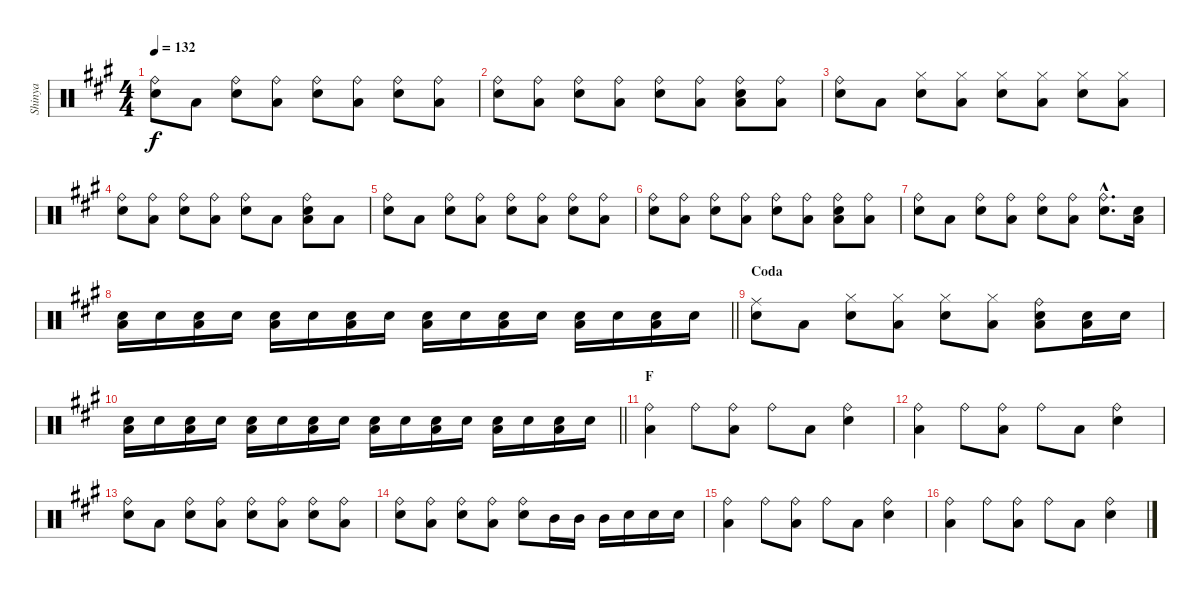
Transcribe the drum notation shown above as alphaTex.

\track ("Shinya" "Shinya") {instrument percussion}
\staff {score}
\articulation defaults
\ts (4 4)
\tempo 132
\clef neutral
\ks a
("Ride (bell)" "Snare (hit) 2").8{dy f} "Low Floor Tom (hit)".8 ("Ride (bell)" "Snare (hit) 2").8 ("Low Floor Tom (hit)" "Ride (bell)").8 ("Ride (bell)" "Snare (hit) 2").8 ("Low Floor Tom (hit)" "Ride (bell)").8 ("Ride (bell)" "Snare (hit) 2").8 ("Low Floor Tom (hit)" "Ride (bell)").8 |
("Ride (bell)" "Snare (hit) 2").8 ("Low Floor Tom (hit)" "Ride (bell)").8 ("Ride (bell)" "Snare (hit) 2").8 ("Low Floor Tom (hit)" "Ride (bell)").8 ("Ride (bell)" "Snare (hit) 2").8 ("Low Floor Tom (hit)" "Ride (bell)").8 ("Low Floor Tom (hit)" "Ride (bell)" "Snare (hit) 2").8 ("Low Floor Tom (hit)" "Ride (bell)").8 |
("Ride (bell)" "Snare (hit) 2").8 "Low Floor Tom (hit)".8 ("Hi-Hat (closed)" "Snare (hit) 2").8 ("Low Floor Tom (hit)" "Hi-Hat (closed)").8 ("Hi-Hat (closed)" "Snare (hit) 2").8 ("Low Floor Tom (hit)" "Hi-Hat (closed)").8 ("Hi-Hat (closed)" "Snare (hit) 2").8 ("Low Floor Tom (hit)" "Hi-Hat (closed)").8 |
("Ride (bell)" "Snare (hit) 2").8 ("Low Floor Tom (hit)" "Ride (bell)").8 ("Ride (bell)" "Snare (hit) 2").8 ("Low Floor Tom (hit)" "Ride (bell)").8 ("Ride (bell)" "Snare (hit) 2").8 "Low Floor Tom (hit)".8 ("Low Floor Tom (hit)" "Ride (bell)" "Snare (hit) 2").8 "Low Floor Tom (hit)".8 |
("Ride (bell)" "Snare (hit) 2").8 "Low Floor Tom (hit)".8 ("Ride (bell)" "Snare (hit) 2").8 ("Low Floor Tom (hit)" "Ride (bell)").8 ("Ride (bell)" "Snare (hit) 2").8 ("Low Floor Tom (hit)" "Ride (bell)").8 ("Ride (bell)" "Snare (hit) 2").8 ("Low Floor Tom (hit)" "Ride (bell)").8 |
("Ride (bell)" "Snare (hit) 2").8 ("Low Floor Tom (hit)" "Ride (bell)").8 ("Ride (bell)" "Snare (hit) 2").8 ("Low Floor Tom (hit)" "Ride (bell)").8 ("Ride (bell)" "Snare (hit) 2").8 ("Low Floor Tom (hit)" "Ride (bell)").8 ("Low Floor Tom (hit)" "Ride (bell)" "Snare (hit) 2").8 ("Low Floor Tom (hit)" "Ride (bell)").8 |
("Ride (bell)" "Snare (hit) 2").8 "Low Floor Tom (hit)".8 ("Ride (bell)" "Snare (hit) 2").8 ("Low Floor Tom (hit)" "Ride (bell)").8 ("Ride (bell)" "Snare (hit) 2").8 ("Low Floor Tom (hit)" "Ride (bell)").8 ("Ride (bell)"{hac} "Snare (hit) 2"{hac}).8{d} ("Low Floor Tom (hit)" "Snare (hit) 2").16 |
\barLineRight lightlight
("Low Floor Tom (hit)" "Snare (hit) 2").16 "Snare (hit) 2".16 ("Low Floor Tom (hit)" "Snare (hit) 2").16 "Snare (hit) 2".16 ("Low Floor Tom (hit)" "Snare (hit) 2").16 "Snare (hit) 2".16 ("Low Floor Tom (hit)" "Snare (hit) 2").16 "Snare (hit) 2".16 ("Low Floor Tom (hit)" "Snare (hit) 2").16 "Snare (hit) 2".16 ("Low Floor Tom (hit)" "Snare (hit) 2").16 "Snare (hit) 2".16 ("Low Floor Tom (hit)" "Snare (hit) 2").16 "Snare (hit) 2".16 ("Low Floor Tom (hit)" "Snare (hit) 2").16 "Snare (hit) 2".16 |
\section ("" "Coda")
("Ride (middle)" "Snare (hit) 2").8 "Low Floor Tom (hit)".8 ("Hi-Hat (closed)" "Snare (hit) 2").8 ("Low Floor Tom (hit)" "Hi-Hat (closed)").8 ("Hi-Hat (closed)" "Snare (hit) 2").8 ("Low Floor Tom (hit)" "Hi-Hat (closed)").8 ("Low Floor Tom (hit)" "Ride (bell)" "Snare (hit) 2").8 ("Low Floor Tom (hit)" "Snare (hit) 2").16 "Snare (hit) 2".16 |
\barLineRight lightlight
("Low Floor Tom (hit)" "Snare (hit) 2").16 "Snare (hit) 2".16 ("Low Floor Tom (hit)" "Snare (hit) 2").16 "Snare (hit) 2".16 ("Low Floor Tom (hit)" "Snare (hit) 2").16 "Snare (hit) 2".16 ("Low Floor Tom (hit)" "Snare (hit) 2").16 "Snare (hit) 2".16 ("Low Floor Tom (hit)" "Snare (hit) 2").16 "Snare (hit) 2".16 ("Low Floor Tom (hit)" "Snare (hit) 2").16 "Snare (hit) 2".16 ("Low Floor Tom (hit)" "Snare (hit) 2").16 "Snare (hit) 2".16 ("Low Floor Tom (hit)" "Snare (hit) 2").16 "Snare (hit) 2".16 |
\section ("" "F")
("Low Floor Tom (hit)" "Ride (bell)").4 "Ride (bell)".8 ("Low Floor Tom (hit)" "Ride (bell)").8 "Ride (bell)".8 "Low Floor Tom (hit)".8 ("Ride (bell)" "Snare (hit) 2").4 |
("Low Floor Tom (hit)" "Ride (bell)").4 "Ride (bell)".8 ("Low Floor Tom (hit)" "Ride (bell)").8 "Ride (bell)".8 "Low Floor Tom (hit)".8 ("Ride (bell)" "Snare (hit) 2").4 |
("Ride (bell)" "Snare (hit) 2").8 "Low Floor Tom (hit)".8 ("Ride (bell)" "Snare (hit) 2").8 ("Low Floor Tom (hit)" "Ride (bell)").8 ("Ride (bell)" "Snare (hit) 2").8 ("Low Floor Tom (hit)" "Ride (bell)").8 ("Ride (bell)" "Snare (hit) 2").8 ("Low Floor Tom (hit)" "Ride (bell)").8 |
("Ride (bell)" "Snare (hit) 2").8 ("Low Floor Tom (hit)" "Ride (bell)").8 ("Ride (bell)" "Snare (hit) 2").8 ("Low Floor Tom (hit)" "Ride (bell)").8 ("Ride (bell)" "Snare (hit) 2").8 "Mid Tom (hit)".16 "Mid Tom (hit)".16 "Mid Tom (hit)".16 "Snare (hit) 2".16 "Snare (hit) 2".16 "Snare (hit) 2".16 |
("Low Floor Tom (hit)" "Ride (bell)").4 "Ride (bell)".8 ("Low Floor Tom (hit)" "Ride (bell)").8 "Ride (bell)".8 "Low Floor Tom (hit)".8 ("Ride (bell)" "Snare (hit) 2").4 |
("Low Floor Tom (hit)" "Ride (bell)").4 "Ride (bell)".8 ("Low Floor Tom (hit)" "Ride (bell)").8 "Ride (bell)".8 "Low Floor Tom (hit)".8 ("Ride (bell)" "Snare (hit) 2").4
